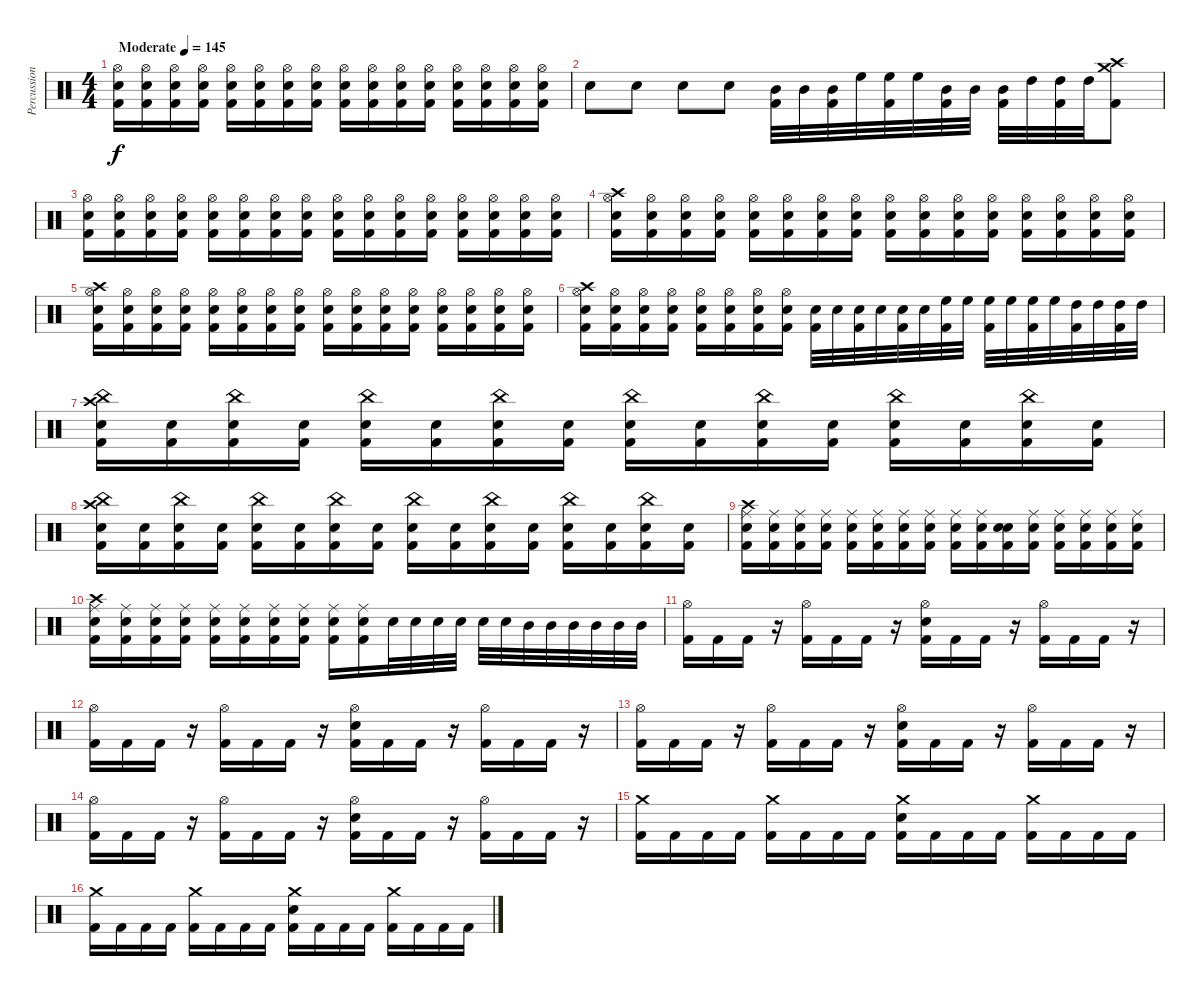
\track ("Percussion" "Percussion") {instrument percussion}
\staff {score}
\articulation defaults
\ts (4 4)
\tempo (145 "Moderate")
\clef neutral
\ks c
("Hi-Hat (open)" "Electric Snare (hit)" "Kick (hit) 2").16{dy f} ("Hi-Hat (open)" "Electric Snare (hit)" "Kick (hit) 2").16 ("Hi-Hat (open)" "Electric Snare (hit)" "Kick (hit) 2").16 ("Hi-Hat (open)" "Electric Snare (hit)" "Kick (hit) 2").16 ("Hi-Hat (open)" "Electric Snare (hit)" "Kick (hit) 2").16 ("Hi-Hat (open)" "Electric Snare (hit)" "Kick (hit) 2").16 ("Hi-Hat (open)" "Electric Snare (hit)" "Kick (hit) 2").16 ("Hi-Hat (open)" "Electric Snare (hit)" "Kick (hit) 2").16 ("Hi-Hat (open)" "Electric Snare (hit)" "Kick (hit) 2").16 ("Hi-Hat (open)" "Electric Snare (hit)" "Kick (hit) 2").16 ("Hi-Hat (open)" "Electric Snare (hit)" "Kick (hit) 2").16 ("Hi-Hat (open)" "Electric Snare (hit)" "Kick (hit) 2").16 ("Hi-Hat (open)" "Electric Snare (hit)" "Kick (hit) 2").16 ("Hi-Hat (open)" "Electric Snare (hit)" "Kick (hit) 2").16 ("Hi-Hat (open)" "Electric Snare (hit)" "Kick (hit) 2").16 ("Hi-Hat (open)" "Electric Snare (hit)" "Kick (hit) 2").16 |
"Electric Snare (hit)".8 "Electric Snare (hit)".8 "Electric Snare (hit)".8 "Electric Snare (hit)".8 ("Mid Tom (hit)" "Kick (hit) 2").32 "Mid Tom (hit)".32 ("Mid Tom (hit)" "Kick (hit) 2").32 "High Floor Tom (hit)".32 ("High Floor Tom (hit)" "Kick (hit) 2").32 "High Floor Tom (hit)".32 ("Mid Tom (hit)" "Kick (hit) 2").32 "Mid Tom (hit)".32 ("Mid Tom (hit)" "Kick (hit) 2").32 "High Tom (hit)".32 ("High Tom (hit)" "Kick (hit) 2").32 "High Tom (hit)".32 ("Crash high (hit)" "Crash medium (hit)" "Kick (hit) 2").8 |
("Hi-Hat (open)" "Electric Snare (hit)" "Kick (hit) 2").16 ("Hi-Hat (open)" "Electric Snare (hit)" "Kick (hit) 2").16 ("Hi-Hat (open)" "Electric Snare (hit)" "Kick (hit) 2").16 ("Hi-Hat (open)" "Electric Snare (hit)" "Kick (hit) 2").16 ("Hi-Hat (open)" "Electric Snare (hit)" "Kick (hit) 2").16 ("Hi-Hat (open)" "Electric Snare (hit)" "Kick (hit) 2").16 ("Hi-Hat (open)" "Electric Snare (hit)" "Kick (hit) 2").16 ("Hi-Hat (open)" "Electric Snare (hit)" "Kick (hit) 2").16 ("Hi-Hat (open)" "Electric Snare (hit)" "Kick (hit) 2").16 ("Hi-Hat (open)" "Electric Snare (hit)" "Kick (hit) 2").16 ("Hi-Hat (open)" "Electric Snare (hit)" "Kick (hit) 2").16 ("Hi-Hat (open)" "Electric Snare (hit)" "Kick (hit) 2").16 ("Hi-Hat (open)" "Electric Snare (hit)" "Kick (hit) 2").16 ("Hi-Hat (open)" "Electric Snare (hit)" "Kick (hit) 2").16 ("Hi-Hat (open)" "Electric Snare (hit)" "Kick (hit) 2").16 ("Hi-Hat (open)" "Electric Snare (hit)" "Kick (hit) 2").16 |
("Hi-Hat (open)" "Crash high (hit)" "Electric Snare (hit)" "Kick (hit) 2").16 ("Hi-Hat (open)" "Electric Snare (hit)" "Kick (hit) 2").16 ("Hi-Hat (open)" "Electric Snare (hit)" "Kick (hit) 2").16 ("Hi-Hat (open)" "Electric Snare (hit)" "Kick (hit) 2").16 ("Hi-Hat (open)" "Electric Snare (hit)" "Kick (hit) 2").16 ("Hi-Hat (open)" "Electric Snare (hit)" "Kick (hit) 2").16 ("Hi-Hat (open)" "Electric Snare (hit)" "Kick (hit) 2").16 ("Hi-Hat (open)" "Electric Snare (hit)" "Kick (hit) 2").16 ("Hi-Hat (open)" "Electric Snare (hit)" "Kick (hit) 2").16 ("Hi-Hat (open)" "Electric Snare (hit)" "Kick (hit) 2").16 ("Hi-Hat (open)" "Electric Snare (hit)" "Kick (hit) 2").16 ("Hi-Hat (open)" "Electric Snare (hit)" "Kick (hit) 2").16 ("Hi-Hat (open)" "Electric Snare (hit)" "Kick (hit) 2").16 ("Hi-Hat (open)" "Electric Snare (hit)" "Kick (hit) 2").16 ("Hi-Hat (open)" "Electric Snare (hit)" "Kick (hit) 2").16 ("Hi-Hat (open)" "Electric Snare (hit)" "Kick (hit) 2").16 |
("Hi-Hat (open)" "Crash high (hit)" "Electric Snare (hit)" "Kick (hit) 2").16 ("Hi-Hat (open)" "Electric Snare (hit)" "Kick (hit) 2").16 ("Hi-Hat (open)" "Electric Snare (hit)" "Kick (hit) 2").16 ("Hi-Hat (open)" "Electric Snare (hit)" "Kick (hit) 2").16 ("Hi-Hat (open)" "Electric Snare (hit)" "Kick (hit) 2").16 ("Hi-Hat (open)" "Electric Snare (hit)" "Kick (hit) 2").16 ("Hi-Hat (open)" "Electric Snare (hit)" "Kick (hit) 2").16 ("Hi-Hat (open)" "Electric Snare (hit)" "Kick (hit) 2").16 ("Hi-Hat (open)" "Electric Snare (hit)" "Kick (hit) 2").16 ("Hi-Hat (open)" "Electric Snare (hit)" "Kick (hit) 2").16 ("Hi-Hat (open)" "Electric Snare (hit)" "Kick (hit) 2").16 ("Hi-Hat (open)" "Electric Snare (hit)" "Kick (hit) 2").16 ("Hi-Hat (open)" "Electric Snare (hit)" "Kick (hit) 2").16 ("Hi-Hat (open)" "Electric Snare (hit)" "Kick (hit) 2").16 ("Hi-Hat (open)" "Electric Snare (hit)" "Kick (hit) 2").16 ("Hi-Hat (open)" "Electric Snare (hit)" "Kick (hit) 2").16 |
("Hi-Hat (open)" "Crash high (hit)" "Electric Snare (hit)" "Kick (hit) 2").16 ("Hi-Hat (open)" "Electric Snare (hit)" "Kick (hit) 2").16 ("Hi-Hat (open)" "Electric Snare (hit)" "Kick (hit) 2").16 ("Hi-Hat (open)" "Electric Snare (hit)" "Kick (hit) 2").16 ("Hi-Hat (open)" "Electric Snare (hit)" "Kick (hit) 2").16 ("Hi-Hat (open)" "Electric Snare (hit)" "Kick (hit) 2").16 ("Hi-Hat (open)" "Electric Snare (hit)" "Kick (hit) 2").16 ("Hi-Hat (open)" "Electric Snare (hit)" "Kick (hit) 2").16 ("Electric Snare (hit)" "Kick (hit) 2").32 "Electric Snare (hit)".32 ("Electric Snare (hit)" "Kick (hit) 2").32 "Electric Snare (hit)".32 ("Electric Snare (hit)" "Kick (hit) 2").32 "Electric Snare (hit)".32 ("High Floor Tom (hit)" "Kick (hit) 2").32 "High Floor Tom (hit)".32 ("High Floor Tom (hit)" "Kick (hit) 2").32 "High Floor Tom (hit)".32 ("High Floor Tom (hit)" "Kick (hit) 2").32 "High Floor Tom (hit)".32 ("High Tom (hit)" "Kick (hit) 2").32 "High Tom (hit)".32 ("High Tom (hit)" "Kick (hit) 2").32 "High Tom (hit)".32 |
("China (hit)" "Crash high (hit)" "Electric Snare (hit)" "Kick (hit) 2").16 ("Electric Snare (hit)" "Kick (hit) 2").16 ("China (hit)" "Electric Snare (hit)" "Kick (hit) 2").16 ("Electric Snare (hit)" "Kick (hit) 2").16 ("China (hit)" "Electric Snare (hit)" "Kick (hit) 2").16 ("Electric Snare (hit)" "Kick (hit) 2").16 ("China (hit)" "Electric Snare (hit)" "Kick (hit) 2").16 ("Electric Snare (hit)" "Kick (hit) 2").16 ("China (hit)" "Electric Snare (hit)" "Kick (hit) 2").16 ("Electric Snare (hit)" "Kick (hit) 2").16 ("China (hit)" "Electric Snare (hit)" "Kick (hit) 2").16 ("Electric Snare (hit)" "Kick (hit) 2").16 ("China (hit)" "Electric Snare (hit)" "Kick (hit) 2").16 ("Electric Snare (hit)" "Kick (hit) 2").16 ("China (hit)" "Electric Snare (hit)" "Kick (hit) 2").16 ("Electric Snare (hit)" "Kick (hit) 2").16 |
("China (hit)" "Crash high (hit)" "Electric Snare (hit)" "Kick (hit) 2").16 ("Electric Snare (hit)" "Kick (hit) 2").16 ("China (hit)" "Electric Snare (hit)" "Kick (hit) 2").16 ("Electric Snare (hit)" "Kick (hit) 2").16 ("China (hit)" "Electric Snare (hit)" "Kick (hit) 2").16 ("Electric Snare (hit)" "Kick (hit) 2").16 ("China (hit)" "Electric Snare (hit)" "Kick (hit) 2").16 ("Electric Snare (hit)" "Kick (hit) 2").16 ("China (hit)" "Electric Snare (hit)" "Kick (hit) 2").16 ("Electric Snare (hit)" "Kick (hit) 2").16 ("China (hit)" "Electric Snare (hit)" "Kick (hit) 2").16 ("Electric Snare (hit)" "Kick (hit) 2").16 ("China (hit)" "Electric Snare (hit)" "Kick (hit) 2").16 ("Electric Snare (hit)" "Kick (hit) 2").16 ("China (hit)" "Electric Snare (hit)" "Kick (hit) 2").16 ("Electric Snare (hit)" "Kick (hit) 2").16 |
("Ride (middle)" "Crash high (hit)" "Electric Snare (hit)" "Kick (hit) 2").16 ("Ride (middle)" "Electric Snare (hit)" "Kick (hit) 2").16 ("Ride (middle)" "Electric Snare (hit)" "Kick (hit) 2").16 ("Ride (middle)" "Electric Snare (hit)" "Kick (hit) 2").16 ("Ride (middle)" "Electric Snare (hit)" "Kick (hit) 2").16 ("Ride (middle)" "Electric Snare (hit)" "Kick (hit) 2").16 ("Ride (middle)" "Electric Snare (hit)" "Kick (hit) 2").16 ("Ride (middle)" "Electric Snare (hit)" "Kick (hit) 2").16 ("Ride (middle)" "Electric Snare (hit)" "Kick (hit) 2").16 ("Ride (middle)" "Electric Snare (hit)" "Kick (hit) 2").16 ("Snare (hit)" "Electric Snare (hit)" "Kick (hit) 2").16 ("Ride (middle)" "Electric Snare (hit)" "Kick (hit) 2").16 ("Ride (middle)" "Electric Snare (hit)" "Kick (hit) 2").16 ("Ride (middle)" "Electric Snare (hit)" "Kick (hit) 2").16 ("Ride (middle)" "Electric Snare (hit)" "Kick (hit) 2").16 ("Ride (middle)" "Electric Snare (hit)" "Kick (hit) 2").16 |
("Ride (middle)" "Crash high (hit)" "Electric Snare (hit)" "Kick (hit) 2").16 ("Ride (middle)" "Electric Snare (hit)" "Kick (hit) 2").16 ("Ride (middle)" "Electric Snare (hit)" "Kick (hit) 2").16 ("Ride (middle)" "Electric Snare (hit)" "Kick (hit) 2").16 ("Ride (middle)" "Electric Snare (hit)" "Kick (hit) 2").16 ("Ride (middle)" "Electric Snare (hit)" "Kick (hit) 2").16 ("Ride (middle)" "Electric Snare (hit)" "Kick (hit) 2").16 ("Ride (middle)" "Electric Snare (hit)" "Kick (hit) 2").16 ("Ride (middle)" "Electric Snare (hit)" "Kick (hit) 2").16 ("Ride (middle)" "Electric Snare (hit)" "Kick (hit) 2").16 "Electric Snare (hit)".32 "Electric Snare (hit)".32 "Electric Snare (hit)".32 "Electric Snare (hit)".32 "Electric Snare (hit)".32 "Electric Snare (hit)".32 "Mid Tom (hit)".32 "Mid Tom (hit)".32 "Mid Tom (hit)".32 "Mid Tom (hit)".32 "Mid Tom (hit)".32 "Mid Tom (hit)".32 |
("Hi-Hat (open)" "Kick (hit) 2").16 "Kick (hit) 2".16 "Kick (hit) 2".16 r.16 ("Hi-Hat (open)" "Kick (hit) 2").16 "Kick (hit) 2".16 "Kick (hit) 2".16 r.16 ("Hi-Hat (open)" "Electric Snare (hit)" "Kick (hit) 2").16 "Kick (hit) 2".16 "Kick (hit) 2".16 r.16 ("Hi-Hat (open)" "Kick (hit) 2").16 "Kick (hit) 2".16 "Kick (hit) 2".16 r.16 |
("Hi-Hat (open)" "Kick (hit) 2").16 "Kick (hit) 2".16 "Kick (hit) 2".16 r.16 ("Hi-Hat (open)" "Kick (hit) 2").16 "Kick (hit) 2".16 "Kick (hit) 2".16 r.16 ("Hi-Hat (open)" "Electric Snare (hit)" "Kick (hit) 2").16 "Kick (hit) 2".16 "Kick (hit) 2".16 r.16 ("Hi-Hat (open)" "Kick (hit) 2").16 "Kick (hit) 2".16 "Kick (hit) 2".16 r.16 |
("Hi-Hat (open)" "Kick (hit) 2").16 "Kick (hit) 2".16 "Kick (hit) 2".16 r.16 ("Hi-Hat (open)" "Kick (hit) 2").16 "Kick (hit) 2".16 "Kick (hit) 2".16 r.16 ("Hi-Hat (open)" "Electric Snare (hit)" "Kick (hit) 2").16 "Kick (hit) 2".16 "Kick (hit) 2".16 r.16 ("Hi-Hat (open)" "Kick (hit) 2").16 "Kick (hit) 2".16 "Kick (hit) 2".16 r.16 |
("Hi-Hat (open)" "Kick (hit) 2").16 "Kick (hit) 2".16 "Kick (hit) 2".16 r.16 ("Hi-Hat (open)" "Kick (hit) 2").16 "Kick (hit) 2".16 "Kick (hit) 2".16 r.16 ("Hi-Hat (open)" "Electric Snare (hit)" "Kick (hit) 2").16 "Kick (hit) 2".16 "Kick (hit) 2".16 r.16 ("Hi-Hat (open)" "Kick (hit) 2").16 "Kick (hit) 2".16 "Kick (hit) 2".16 r.16 |
("Crash medium (hit)" "Kick (hit) 2").16 "Kick (hit) 2".16 "Kick (hit) 2".16 "Kick (hit) 2".16 ("Crash medium (hit)" "Kick (hit) 2").16 "Kick (hit) 2".16 "Kick (hit) 2".16 "Kick (hit) 2".16 ("Crash medium (hit)" "Electric Snare (hit)" "Kick (hit) 2").16 "Kick (hit) 2".16 "Kick (hit) 2".16 "Kick (hit) 2".16 ("Crash medium (hit)" "Kick (hit) 2").16 "Kick (hit) 2".16 "Kick (hit) 2".16 "Kick (hit) 2".16 |
("Crash medium (hit)" "Kick (hit) 2").16 "Kick (hit) 2".16 "Kick (hit) 2".16 "Kick (hit) 2".16 ("Crash medium (hit)" "Kick (hit) 2").16 "Kick (hit) 2".16 "Kick (hit) 2".16 "Kick (hit) 2".16 ("Crash medium (hit)" "Electric Snare (hit)" "Kick (hit) 2").16 "Kick (hit) 2".16 "Kick (hit) 2".16 "Kick (hit) 2".16 ("Crash medium (hit)" "Kick (hit) 2").16 "Kick (hit) 2".16 "Kick (hit) 2".16 "Kick (hit) 2".16
